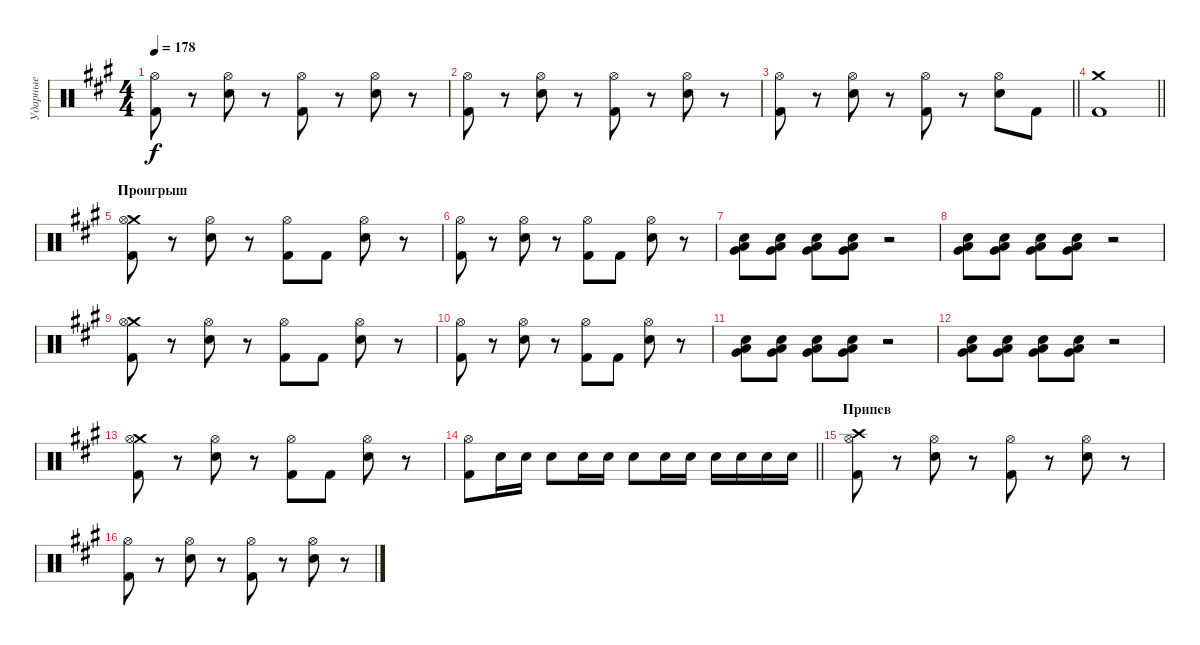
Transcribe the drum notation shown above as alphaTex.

\track ("Ударные" "Ударные") {instrument percussion}
\staff {score}
\articulation defaults
\ts (4 4)
\tempo 178
\clef neutral
\ks f#minor
("Kick (hit) 2" "Hi-Hat (open)").8{dy f} r.8 ("Electric Snare (hit)" "Hi-Hat (open)").8 r.8 ("Kick (hit) 2" "Hi-Hat (open)").8 r.8 ("Electric Snare (hit)" "Hi-Hat (open)").8 r.8 |
("Kick (hit) 2" "Hi-Hat (open)").8 r.8 ("Electric Snare (hit)" "Hi-Hat (open)").8 r.8 ("Kick (hit) 2" "Hi-Hat (open)").8 r.8 ("Electric Snare (hit)" "Hi-Hat (open)").8 r.8 |
\barLineRight lightlight
("Kick (hit) 2" "Hi-Hat (open)").8 r.8 ("Electric Snare (hit)" "Hi-Hat (open)").8 r.8 ("Kick (hit) 2" "Hi-Hat (open)").8 r.8 ("Electric Snare (hit)" "Hi-Hat (open)").8 "Kick (hit) 2".8 |
\barLineRight lightlight
("Crash medium (hit)" "Kick (hit) 2").1 |
\section ("" "Проигрыш")
("Crash medium (hit)" "Kick (hit) 2" "Hi-Hat (open)").8 r.8 ("Electric Snare (hit)" "Hi-Hat (open)").8 r.8 ("Kick (hit) 2" "Hi-Hat (open)").8 "Kick (hit) 2".8 ("Electric Snare (hit)" "Hi-Hat (open)").8 r.8 |
("Kick (hit) 2" "Hi-Hat (open)").8 r.8 ("Electric Snare (hit)" "Hi-Hat (open)").8 r.8 ("Kick (hit) 2" "Hi-Hat (open)").8 "Kick (hit) 2".8 ("Electric Snare (hit)" "Hi-Hat (open)").8 r.8 |
("Electric Snare (hit)" "Very Low Tom (hit)" "Low Floor Tom (hit)").8 ("Electric Snare (hit)" "Very Low Tom (hit)" "Low Floor Tom (hit)").8 ("Electric Snare (hit)" "Very Low Tom (hit)" "Low Floor Tom (hit)").8 ("Electric Snare (hit)" "Very Low Tom (hit)" "Low Floor Tom (hit)").8 r.2 |
("Electric Snare (hit)" "Very Low Tom (hit)" "Low Floor Tom (hit)").8 ("Electric Snare (hit)" "Very Low Tom (hit)" "Low Floor Tom (hit)").8 ("Electric Snare (hit)" "Very Low Tom (hit)" "Low Floor Tom (hit)").8 ("Electric Snare (hit)" "Very Low Tom (hit)" "Low Floor Tom (hit)").8 r.2 |
("Crash medium (hit)" "Kick (hit) 2" "Hi-Hat (open)").8 r.8 ("Electric Snare (hit)" "Hi-Hat (open)").8 r.8 ("Kick (hit) 2" "Hi-Hat (open)").8 "Kick (hit) 2".8 ("Electric Snare (hit)" "Hi-Hat (open)").8 r.8 |
("Kick (hit) 2" "Hi-Hat (open)").8 r.8 ("Electric Snare (hit)" "Hi-Hat (open)").8 r.8 ("Kick (hit) 2" "Hi-Hat (open)").8 "Kick (hit) 2".8 ("Electric Snare (hit)" "Hi-Hat (open)").8 r.8 |
("Electric Snare (hit)" "Very Low Tom (hit)" "Low Floor Tom (hit)").8 ("Electric Snare (hit)" "Very Low Tom (hit)" "Low Floor Tom (hit)").8 ("Electric Snare (hit)" "Very Low Tom (hit)" "Low Floor Tom (hit)").8 ("Electric Snare (hit)" "Very Low Tom (hit)" "Low Floor Tom (hit)").8 r.2 |
("Electric Snare (hit)" "Very Low Tom (hit)" "Low Floor Tom (hit)").8 ("Electric Snare (hit)" "Very Low Tom (hit)" "Low Floor Tom (hit)").8 ("Electric Snare (hit)" "Very Low Tom (hit)" "Low Floor Tom (hit)").8 ("Electric Snare (hit)" "Very Low Tom (hit)" "Low Floor Tom (hit)").8 r.2 |
("Crash medium (hit)" "Kick (hit) 2" "Hi-Hat (open)").8 r.8 ("Electric Snare (hit)" "Hi-Hat (open)").8 r.8 ("Kick (hit) 2" "Hi-Hat (open)").8 "Kick (hit) 2".8 ("Electric Snare (hit)" "Hi-Hat (open)").8 r.8 |
\barLineRight lightlight
("Kick (hit) 2" "Hi-Hat (open)").8 "Electric Snare (hit)".16 "Electric Snare (hit)".16 "Electric Snare (hit)".8 "Electric Snare (hit)".16 "Electric Snare (hit)".16 "Electric Snare (hit)".8 "Electric Snare (hit)".16 "Electric Snare (hit)".16 "Electric Snare (hit)".16 "Electric Snare (hit)".16 "Electric Snare (hit)".16 "Electric Snare (hit)".16 |
\section ("" "Припев")
("Crash high (hit)" "Kick (hit) 2" "Hi-Hat (open)").8 r.8 ("Electric Snare (hit)" "Hi-Hat (open)").8 r.8 ("Kick (hit) 2" "Hi-Hat (open)").8 r.8 ("Electric Snare (hit)" "Hi-Hat (open)").8 r.8 |
("Kick (hit) 2" "Hi-Hat (open)").8 r.8 ("Electric Snare (hit)" "Hi-Hat (open)").8 r.8 ("Kick (hit) 2" "Hi-Hat (open)").8 r.8 ("Electric Snare (hit)" "Hi-Hat (open)").8 r.8
